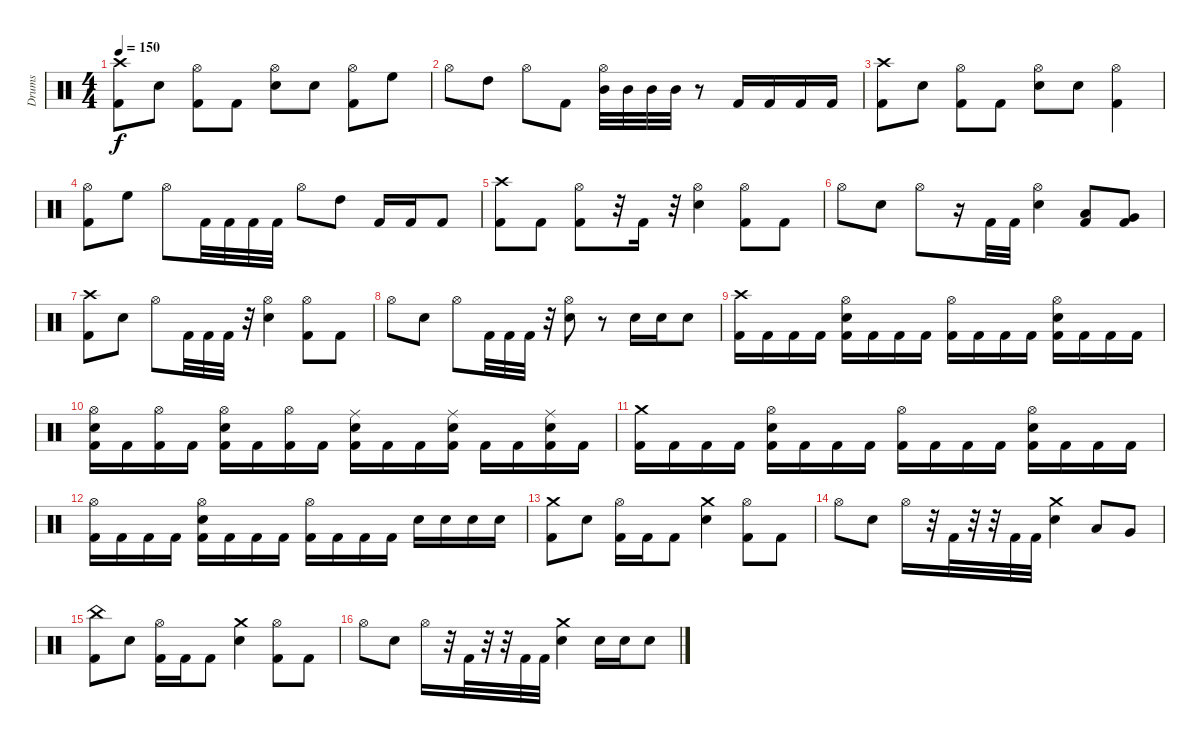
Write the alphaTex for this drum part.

\track ("Drums" "Drums") {instrument percussion}
\staff {score}
\articulation defaults
\ts (4 4)
\tempo 150
\clef neutral
\ks c
("Crash high (hit)" "Kick (hit) 2").8{dy f} "Snare (hit) 2".8 ("Hi-Hat (open)" "Kick (hit) 2").8 "Kick (hit) 2".8 ("Hi-Hat (open)" "Snare (hit) 2").8 "Snare (hit) 2".8 ("Hi-Hat (open)" "Kick (hit) 2").8 "High Floor Tom (hit)".8 |
"Hi-Hat (open)".8 "High Tom (hit)".8 "Hi-Hat (open)".8 "Kick (hit) 2".8 ("Hi-Hat (open)" "Mid Tom (hit)").32 "Mid Tom (hit)".32 "Mid Tom (hit)".32 "Mid Tom (hit)".32 r.8 "Kick (hit) 2".16 "Kick (hit) 2".16 "Kick (hit) 2".16 "Kick (hit) 2".16 |
("Crash high (hit)" "Kick (hit) 2").8 "Snare (hit) 2".8 ("Hi-Hat (open)" "Kick (hit) 2").8 "Kick (hit) 2".8 ("Hi-Hat (open)" "Snare (hit) 2").8 "Snare (hit) 2".8 ("Hi-Hat (open)" "Kick (hit) 2").4 |
("Hi-Hat (open)" "Kick (hit) 2").8 "High Floor Tom (hit)".8 "Hi-Hat (open)".8 "Kick (hit) 2".32 "Kick (hit) 2".32 "Kick (hit) 2".32 "Kick (hit) 2".32 "Hi-Hat (open)".8 "High Tom (hit)".8 "Kick (hit) 2".16 "Kick (hit) 2".16 "Kick (hit) 2".8 |
("Crash high (hit)" "Kick (hit) 2").8 "Kick (hit) 2".8 ("Hi-Hat (open)" "Kick (hit) 2").8 r.32 "Kick (hit) 2".16 r.32 ("Hi-Hat (open)" "Snare (hit) 2").4 ("Hi-Hat (open)" "Kick (hit) 2").8 "Kick (hit) 2".8 |
"Hi-Hat (open)".8 "Snare (hit) 2".8 "Hi-Hat (open)".8 r.16 "Kick (hit) 2".32 "Kick (hit) 2".32 ("Hi-Hat (open)" "Snare (hit) 2").4 ("Low Tom (hit)" "Kick (hit) 2").8 ("Very Low Tom (hit)" "Kick (hit) 2").8 |
("Crash high (hit)" "Kick (hit) 2").8 "Snare (hit) 2".8 "Hi-Hat (open)".8 "Kick (hit) 2".32 "Kick (hit) 2".32 "Kick (hit) 2".32 r.32 ("Hi-Hat (open)" "Snare (hit) 2").4 ("Hi-Hat (open)" "Kick (hit) 2").8 "Kick (hit) 2".8 |
"Hi-Hat (open)".8 "Snare (hit) 2".8 "Hi-Hat (open)".8 "Kick (hit) 2".32 "Kick (hit) 2".32 "Kick (hit) 2".32 r.32 ("Hi-Hat (open)" "Snare (hit) 2").8 r.8 "Snare (hit) 2".16 "Snare (hit) 2".16 "Snare (hit) 2".8 |
("Crash high (hit)" "Kick (hit) 2").16 "Kick (hit) 2".16 "Kick (hit) 2".16 "Kick (hit) 2".16 ("Hi-Hat (open)" "Snare (hit) 2" "Kick (hit) 2").16 "Kick (hit) 2".16 "Kick (hit) 2".16 "Kick (hit) 2".16 ("Hi-Hat (open)" "Kick (hit) 2").16 "Kick (hit) 2".16 "Kick (hit) 2".16 "Kick (hit) 2".16 ("Hi-Hat (open)" "Snare (hit) 2" "Kick (hit) 2").16 "Kick (hit) 2".16 "Kick (hit) 2".16 "Kick (hit) 2".16 |
("Hi-Hat (open)" "Snare (hit) 2" "Kick (hit) 2").16 "Kick (hit) 2".16 ("Hi-Hat (open)" "Kick (hit) 2").16 "Kick (hit) 2".16 ("Hi-Hat (open)" "Snare (hit) 2" "Kick (hit) 2").16 "Kick (hit) 2".16 ("Hi-Hat (open)" "Kick (hit) 2").16 "Kick (hit) 2".16 ("Ride (middle)" "Snare (hit) 2" "Kick (hit) 2").16 "Kick (hit) 2".16 "Kick (hit) 2".16 ("Ride (middle)" "Snare (hit) 2" "Kick (hit) 2").16 "Kick (hit) 2".16 "Kick (hit) 2".16 ("Ride (middle)" "Snare (hit) 2" "Kick (hit) 2").16 "Kick (hit) 2".16 |
("Crash medium (hit)" "Kick (hit) 2").16 "Kick (hit) 2".16 "Kick (hit) 2".16 "Kick (hit) 2".16 ("Hi-Hat (open)" "Snare (hit) 2" "Kick (hit) 2").16 "Kick (hit) 2".16 "Kick (hit) 2".16 "Kick (hit) 2".16 ("Hi-Hat (open)" "Kick (hit) 2").16 "Kick (hit) 2".16 "Kick (hit) 2".16 "Kick (hit) 2".16 ("Hi-Hat (open)" "Snare (hit) 2" "Kick (hit) 2").16 "Kick (hit) 2".16 "Kick (hit) 2".16 "Kick (hit) 2".16 |
("Hi-Hat (open)" "Kick (hit) 2").16 "Kick (hit) 2".16 "Kick (hit) 2".16 "Kick (hit) 2".16 ("Hi-Hat (open)" "Snare (hit) 2" "Kick (hit) 2").16 "Kick (hit) 2".16 "Kick (hit) 2".16 "Kick (hit) 2".16 ("Hi-Hat (open)" "Kick (hit) 2").16 "Kick (hit) 2".16 "Kick (hit) 2".16 "Kick (hit) 2".16 "Snare (hit) 2".16 "Snare (hit) 2".16 "Snare (hit) 2".16 "Snare (hit) 2".16 |
("Crash medium (hit)" "Kick (hit) 2").8 "Snare (hit) 2".8 ("Hi-Hat (open)" "Kick (hit) 2").16 "Kick (hit) 2".16 "Kick (hit) 2".8 ("Crash medium (hit)" "Snare (hit) 2").4 ("Hi-Hat (open)" "Kick (hit) 2").8 "Kick (hit) 2".8 |
"Hi-Hat (open)".8 "Snare (hit) 2".8 "Hi-Hat (open)".16 r.32 "Kick (hit) 2".32 r.32 r.32 "Kick (hit) 2".32 "Kick (hit) 2".32 ("Crash medium (hit)" "Snare (hit) 2").4 "Low Tom (hit)".8 "Very Low Tom (hit)".8 |
("China (hit)" "Kick (hit) 2").8 "Snare (hit) 2".8 ("Hi-Hat (open)" "Kick (hit) 2").16 "Kick (hit) 2".16 "Kick (hit) 2".8 ("Crash medium (hit)" "Snare (hit) 2").4 ("Hi-Hat (open)" "Kick (hit) 2").8 "Kick (hit) 2".8 |
"Hi-Hat (open)".8 "Snare (hit) 2".8 "Hi-Hat (open)".16 r.32 "Kick (hit) 2".32 r.32 r.32 "Kick (hit) 2".32 "Kick (hit) 2".32 ("Crash medium (hit)" "Snare (hit) 2").4 "Snare (hit) 2".16 "Snare (hit) 2".16 "Snare (hit) 2".8
